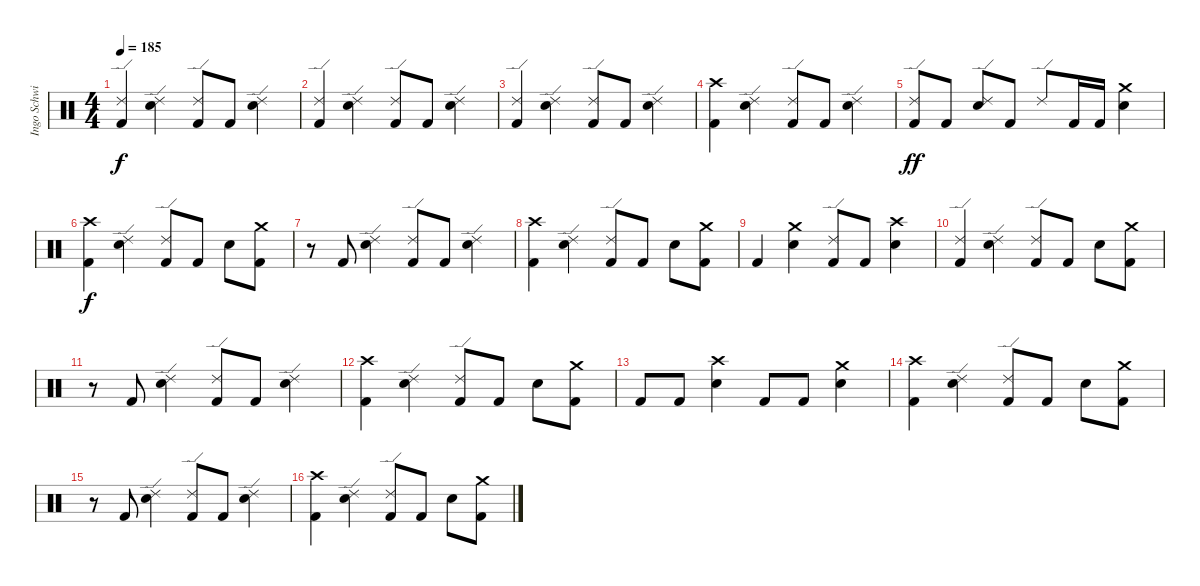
\track ("Ingo Schwischtenberg" "Ingo Schwi") {instrument percussion}
\staff {score}
\articulation defaults
\ts (4 4)
\tempo 185
\clef neutral
\ks c
("Ride (edge) 2" "Kick (hit) 2").4{dy f} ("Ride (edge) 2" "Electric Snare (hit)").4 ("Ride (edge) 2" "Kick (hit) 2").8 "Kick (hit) 2".8 ("Ride (edge) 2" "Electric Snare (hit)").4 |
("Ride (edge) 2" "Kick (hit) 2").4 ("Ride (edge) 2" "Electric Snare (hit)").4 ("Ride (edge) 2" "Kick (hit) 2").8 "Kick (hit) 2".8 ("Ride (edge) 2" "Electric Snare (hit)").4 |
("Ride (edge) 2" "Kick (hit) 2").4 ("Ride (edge) 2" "Electric Snare (hit)").4 ("Ride (edge) 2" "Kick (hit) 2").8 "Kick (hit) 2".8 ("Ride (edge) 2" "Electric Snare (hit)").4 |
("Crash high (hit)" "Kick (hit) 2").4 ("Ride (edge) 2" "Electric Snare (hit)").4 ("Ride (edge) 2" "Kick (hit) 2").8 "Kick (hit) 2".8 ("Ride (edge) 2" "Electric Snare (hit)").4 |
("Ride (edge) 2" "Kick (hit) 2").8{dy ff} "Kick (hit) 2".8 ("Ride (edge) 2" "Electric Snare (hit)").8 "Kick (hit) 2".8 "Ride (edge) 2".8 "Kick (hit) 2".16 "Kick (hit) 2".16 ("Crash medium (hit)" "Electric Snare (hit)").4 |
("Crash high (hit)" "Kick (hit) 2").4{dy f} ("Ride (edge) 2" "Electric Snare (hit)").4 ("Ride (edge) 2" "Kick (hit) 2").8 "Kick (hit) 2".8 "Electric Snare (hit)".8 ("Crash medium (hit)" "Kick (hit) 2").8 |
r.8 "Kick (hit) 2".8 ("Ride (edge) 2" "Electric Snare (hit)").4 ("Ride (edge) 2" "Kick (hit) 2").8 "Kick (hit) 2".8 ("Ride (edge) 2" "Electric Snare (hit)").4 |
("Crash high (hit)" "Kick (hit) 2").4 ("Ride (edge) 2" "Electric Snare (hit)").4 ("Ride (edge) 2" "Kick (hit) 2").8 "Kick (hit) 2".8 "Electric Snare (hit)".8 ("Crash medium (hit)" "Kick (hit) 2").8 |
"Kick (hit) 2".4 ("Crash medium (hit)" "Electric Snare (hit)").4 ("Ride (edge) 2" "Kick (hit) 2").8 "Kick (hit) 2".8 ("Crash high (hit)" "Electric Snare (hit)").4 |
("Ride (edge) 2" "Kick (hit) 2").4 ("Ride (edge) 2" "Electric Snare (hit)").4 ("Ride (edge) 2" "Kick (hit) 2").8 "Kick (hit) 2".8 "Electric Snare (hit)".8 ("Crash medium (hit)" "Kick (hit) 2").8 |
r.8 "Kick (hit) 2".8 ("Ride (edge) 2" "Electric Snare (hit)").4 ("Ride (edge) 2" "Kick (hit) 2").8 "Kick (hit) 2".8 ("Ride (edge) 2" "Electric Snare (hit)").4 |
("Crash high (hit)" "Kick (hit) 2").4 ("Ride (edge) 2" "Electric Snare (hit)").4 ("Ride (edge) 2" "Kick (hit) 2").8 "Kick (hit) 2".8 "Electric Snare (hit)".8 ("Crash medium (hit)" "Kick (hit) 2").8 |
"Kick (hit) 2".8 "Kick (hit) 2".8 ("Crash high (hit)" "Electric Snare (hit)").4 "Kick (hit) 2".8 "Kick (hit) 2".8 ("Crash medium (hit)" "Electric Snare (hit)").4 |
("Crash high (hit)" "Kick (hit) 2").4 ("Ride (edge) 2" "Electric Snare (hit)").4 ("Ride (edge) 2" "Kick (hit) 2").8 "Kick (hit) 2".8 "Electric Snare (hit)".8 ("Crash medium (hit)" "Kick (hit) 2").8 |
r.8 "Kick (hit) 2".8 ("Ride (edge) 2" "Electric Snare (hit)").4 ("Ride (edge) 2" "Kick (hit) 2").8 "Kick (hit) 2".8 ("Ride (edge) 2" "Electric Snare (hit)").4 |
("Crash high (hit)" "Kick (hit) 2").4 ("Ride (edge) 2" "Electric Snare (hit)").4 ("Ride (edge) 2" "Kick (hit) 2").8 "Kick (hit) 2".8 "Electric Snare (hit)".8 ("Crash medium (hit)" "Kick (hit) 2").8
